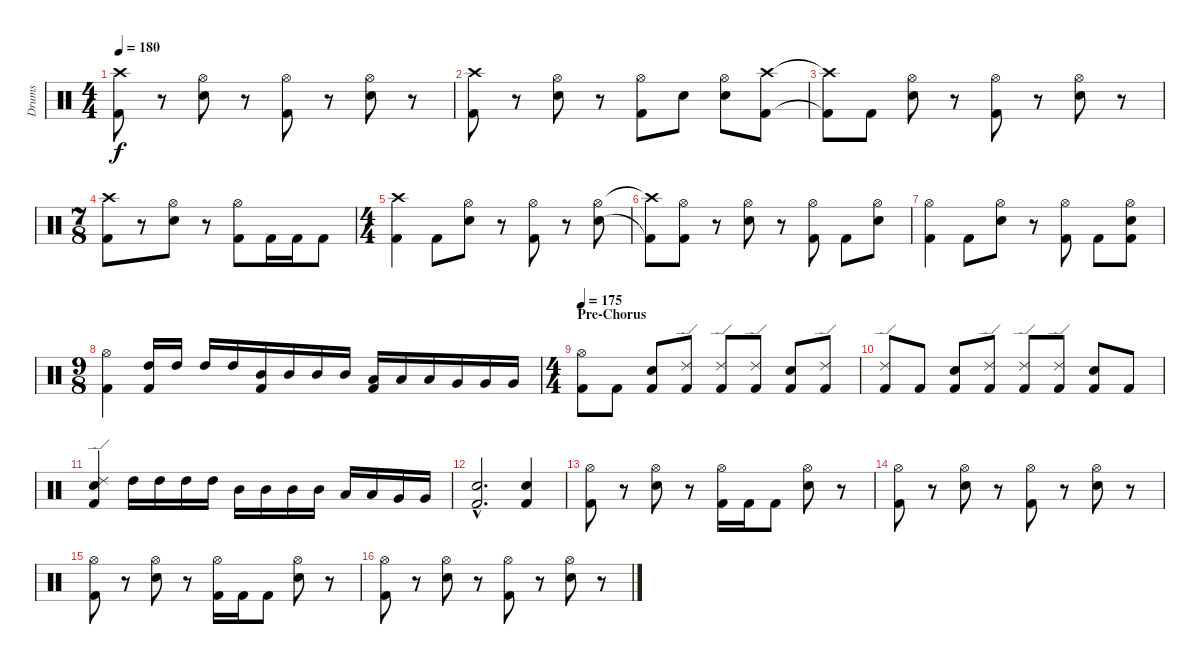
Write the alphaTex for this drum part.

\track ("Drums" "Drums") {instrument percussion}
\staff {score}
\articulation defaults
\ts (4 4)
\tempo 180
\clef neutral
\ks c
("Kick (hit) 2" "Crash high (hit)").8{dy f} r.8 ("Electric Snare (hit)" "Hi-Hat (open)").8 r.8 ("Kick (hit) 2" "Hi-Hat (open)").8 r.8 ("Electric Snare (hit)" "Hi-Hat (open)").8 r.8 |
("Kick (hit) 2" "Crash high (hit)").8 r.8 ("Electric Snare (hit)" "Hi-Hat (open)").8 r.8 ("Kick (hit) 2" "Hi-Hat (open)").8 "Electric Snare (hit)".8 ("Electric Snare (hit)" "Hi-Hat (open)").8 ("Kick (hit) 2" "Crash high (hit)").8 |
("Kick (hit) 2"{t} "Crash high (hit)"{t}).8 "Kick (hit) 2".8 ("Electric Snare (hit)" "Hi-Hat (open)").8 r.8 ("Kick (hit) 2" "Hi-Hat (open)").8 r.8 ("Electric Snare (hit)" "Hi-Hat (open)").8 r.8 |
\ts (7 8)
("Kick (hit) 2" "Crash high (hit)").8 r.8 ("Electric Snare (hit)" "Hi-Hat (open)").8 r.8 ("Kick (hit) 2" "Hi-Hat (open)").8 "Kick (hit) 2".16 "Kick (hit) 2".16 "Kick (hit) 2".8 |
\ts (4 4)
("Kick (hit) 2" "Crash high (hit)").4 "Kick (hit) 2".8 ("Electric Snare (hit)" "Hi-Hat (open)").8 r.8 ("Kick (hit) 2" "Hi-Hat (open)").8 r.8 ("Electric Snare (hit)" "Hi-Hat (open)").8 |
("Kick (hit) 2"{t} "Crash high (hit)"{t}).8 ("Kick (hit) 2" "Hi-Hat (open)").8 r.8 ("Electric Snare (hit)" "Hi-Hat (open)").8 r.8 ("Kick (hit) 2" "Hi-Hat (open)").8 "Kick (hit) 2".8 ("Electric Snare (hit)" "Hi-Hat (open)").8 |
("Kick (hit) 2" "Hi-Hat (open)").4 "Kick (hit) 2".8 ("Electric Snare (hit)" "Hi-Hat (open)").8 r.8 ("Kick (hit) 2" "Hi-Hat (open)").8 "Kick (hit) 2".8 ("Kick (hit) 2" "Electric Snare (hit)" "Hi-Hat (open)").8 |
\ts (9 8)
("Kick (hit) 2" "Hi-Hat (open)").4 ("Kick (hit) 2" "High Tom (hit)").16 "High Tom (hit)".16 "High Tom (hit)".16 "High Tom (hit)".16 ("Kick (hit) 2" "Mid Tom (hit)").16 "Mid Tom (hit)".16 "Mid Tom (hit)".16 "Mid Tom (hit)".16 ("Kick (hit) 2" "Low Tom (hit)").16 "Low Tom (hit)".16 "Low Tom (hit)".16 "Very Low Tom (hit)".16 "Very Low Tom (hit)".16 "Very Low Tom (hit)".16 |
\ts (4 4)
\section ("" "Pre-Chorus")
\tempo 175
("Kick (hit) 2" "Hi-Hat (open)").8 "Kick (hit) 2".8 ("Kick (hit) 2" "Electric Snare (hit)").8 ("Kick (hit) 2" "Ride (edge) 2").8 ("Kick (hit) 2" "Ride (edge) 2").8 ("Kick (hit) 2" "Ride (edge) 2").8 ("Kick (hit) 2" "Electric Snare (hit)").8 ("Kick (hit) 2" "Ride (edge) 2").8 |
("Kick (hit) 2" "Ride (edge) 2").8 "Kick (hit) 2".8 ("Kick (hit) 2" "Electric Snare (hit)").8 ("Kick (hit) 2" "Ride (edge) 2").8 ("Kick (hit) 2" "Ride (edge) 2").8 ("Kick (hit) 2" "Ride (edge) 2").8 ("Kick (hit) 2" "Electric Snare (hit)").8 "Kick (hit) 2".8 |
("Kick (hit) 2" "Electric Snare (hit)" "Ride (edge) 2").4 "High Tom (hit)".16 "High Tom (hit)".16 "High Tom (hit)".16 "High Tom (hit)".16 "Mid Tom (hit)".16 "Mid Tom (hit)".16 "Mid Tom (hit)".16 "Mid Tom (hit)".16 "Low Tom (hit)".16 "Low Tom (hit)".16 "Very Low Tom (hit)".16 "Very Low Tom (hit)".16 |
("Kick (hit) 2"{hac} "Electric Snare (hit)"{hac}).2{d} ("Kick (hit) 2" "Electric Snare (hit)").4 |
("Kick (hit) 2" "Hi-Hat (open)").8 r.8 ("Electric Snare (hit)" "Hi-Hat (open)").8 r.8 ("Kick (hit) 2" "Hi-Hat (open)").16 "Kick (hit) 2".16 "Kick (hit) 2".8 ("Electric Snare (hit)" "Hi-Hat (open)").8 r.8 |
("Kick (hit) 2" "Hi-Hat (open)").8 r.8 ("Electric Snare (hit)" "Hi-Hat (open)").8 r.8 ("Kick (hit) 2" "Hi-Hat (open)").8 r.8 ("Electric Snare (hit)" "Hi-Hat (open)").8 r.8 |
("Kick (hit) 2" "Hi-Hat (open)").8 r.8 ("Electric Snare (hit)" "Hi-Hat (open)").8 r.8 ("Kick (hit) 2" "Hi-Hat (open)").16 "Kick (hit) 2".16 "Kick (hit) 2".8 ("Electric Snare (hit)" "Hi-Hat (open)").8 r.8 |
("Kick (hit) 2" "Hi-Hat (open)").8 r.8 ("Electric Snare (hit)" "Hi-Hat (open)").8 r.8 ("Kick (hit) 2" "Hi-Hat (open)").8 r.8 ("Electric Snare (hit)" "Hi-Hat (open)").8 r.8
